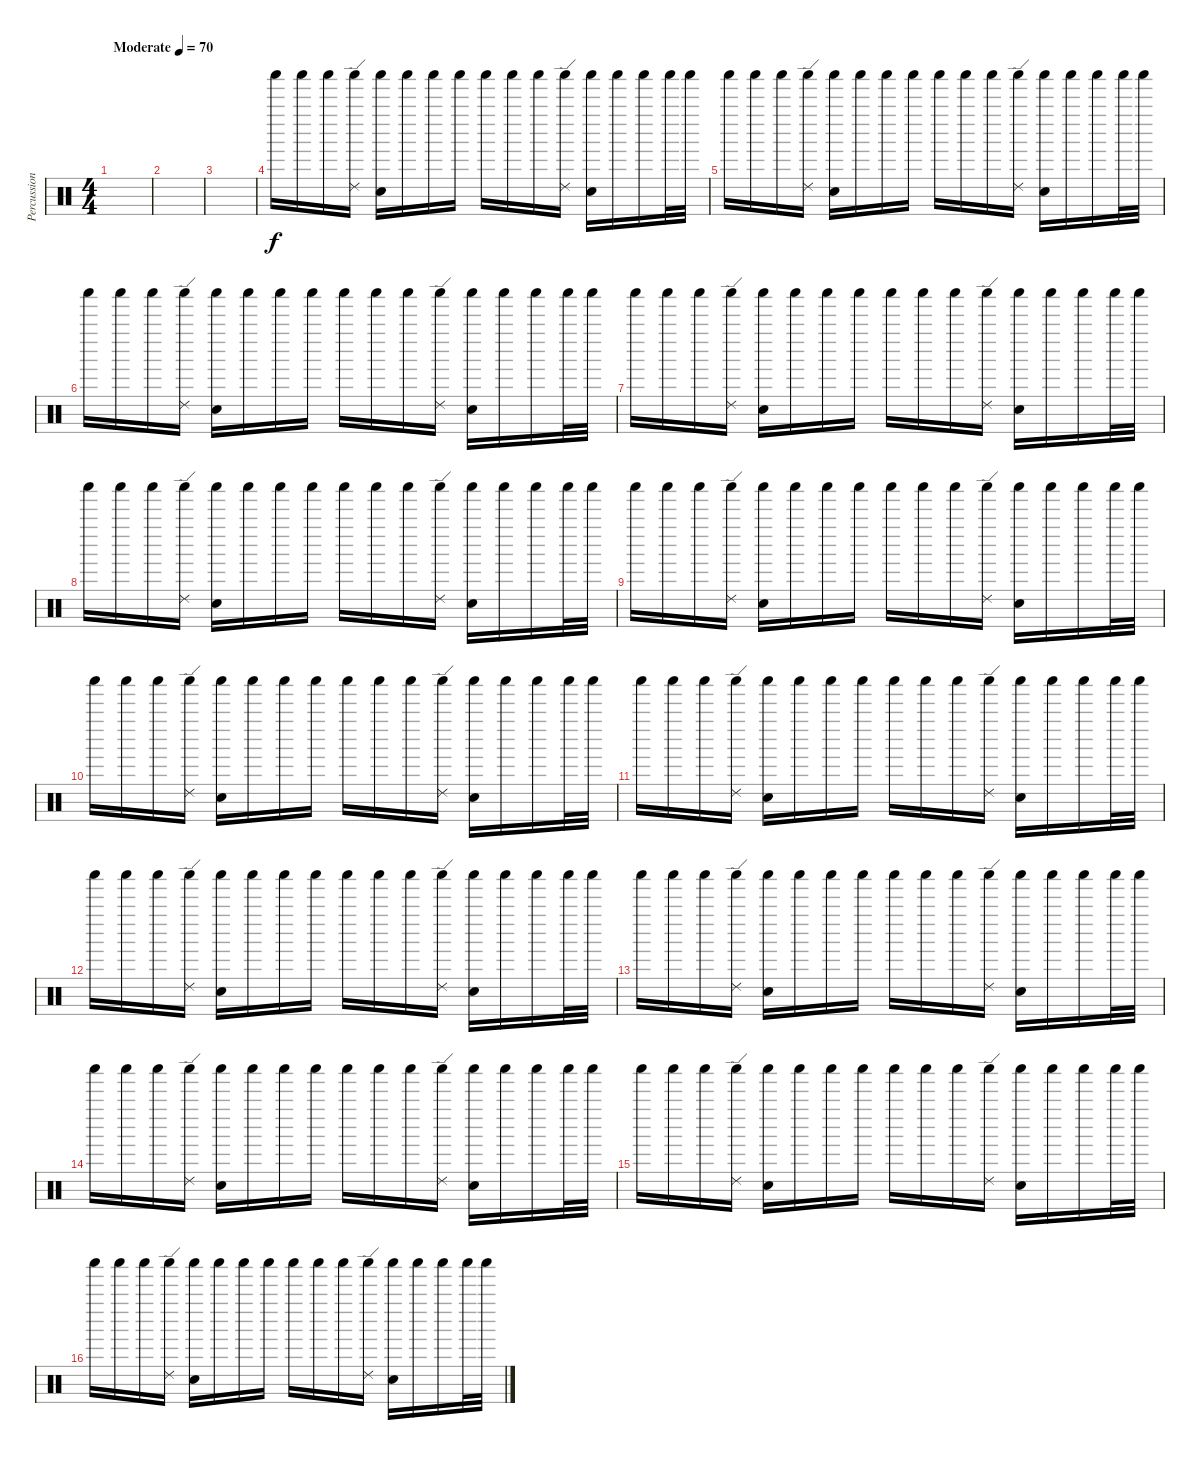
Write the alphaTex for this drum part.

\track ("Percussion" "Percussion") {instrument percussion}
\staff {score}
\articulation defaults
\ts (4 4)
\tempo (70 "Moderate")
\clef neutral
\ks c
|
|
|
"Shaker (hit)".16 "Shaker (hit)".16 "Shaker (hit)".16 ("Shaker (hit)" "Ride (edge) 2").16 ("Shaker (hit)" "Hand Clap (hit)").16 "Shaker (hit)".16 "Shaker (hit)".16 "Shaker (hit)".16 "Shaker (hit)".16 "Shaker (hit)".16 "Shaker (hit)".16 ("Shaker (hit)" "Ride (edge) 2").16 ("Shaker (hit)" "Hand Clap (hit)").16 "Shaker (hit)".16 "Shaker (hit)".16 "Shaker (hit)".32 "Shaker (hit)".32 |
"Shaker (hit)".16 "Shaker (hit)".16 "Shaker (hit)".16 ("Shaker (hit)" "Ride (edge) 2").16 ("Shaker (hit)" "Hand Clap (hit)").16 "Shaker (hit)".16 "Shaker (hit)".16 "Shaker (hit)".16 "Shaker (hit)".16 "Shaker (hit)".16 "Shaker (hit)".16 ("Shaker (hit)" "Ride (edge) 2").16 ("Shaker (hit)" "Hand Clap (hit)").16 "Shaker (hit)".16 "Shaker (hit)".16 "Shaker (hit)".32 "Shaker (hit)".32 |
"Shaker (hit)".16 "Shaker (hit)".16 "Shaker (hit)".16 ("Shaker (hit)" "Ride (edge) 2").16 ("Shaker (hit)" "Hand Clap (hit)").16 "Shaker (hit)".16 "Shaker (hit)".16 "Shaker (hit)".16 "Shaker (hit)".16 "Shaker (hit)".16 "Shaker (hit)".16 ("Shaker (hit)" "Ride (edge) 2").16 ("Shaker (hit)" "Hand Clap (hit)").16 "Shaker (hit)".16 "Shaker (hit)".16 "Shaker (hit)".32 "Shaker (hit)".32 |
"Shaker (hit)".16 "Shaker (hit)".16 "Shaker (hit)".16 ("Shaker (hit)" "Ride (edge) 2").16 ("Shaker (hit)" "Hand Clap (hit)").16 "Shaker (hit)".16 "Shaker (hit)".16 "Shaker (hit)".16 "Shaker (hit)".16 "Shaker (hit)".16 "Shaker (hit)".16 ("Shaker (hit)" "Ride (edge) 2").16 ("Shaker (hit)" "Hand Clap (hit)").16 "Shaker (hit)".16 "Shaker (hit)".16 "Shaker (hit)".32 "Shaker (hit)".32 |
"Shaker (hit)".16 "Shaker (hit)".16 "Shaker (hit)".16 ("Shaker (hit)" "Ride (edge) 2").16 ("Shaker (hit)" "Hand Clap (hit)").16 "Shaker (hit)".16 "Shaker (hit)".16 "Shaker (hit)".16 "Shaker (hit)".16 "Shaker (hit)".16 "Shaker (hit)".16 ("Shaker (hit)" "Ride (edge) 2").16 ("Shaker (hit)" "Hand Clap (hit)").16 "Shaker (hit)".16 "Shaker (hit)".16 "Shaker (hit)".32 "Shaker (hit)".32 |
"Shaker (hit)".16 "Shaker (hit)".16 "Shaker (hit)".16 ("Shaker (hit)" "Ride (edge) 2").16 ("Shaker (hit)" "Hand Clap (hit)").16 "Shaker (hit)".16 "Shaker (hit)".16 "Shaker (hit)".16 "Shaker (hit)".16 "Shaker (hit)".16 "Shaker (hit)".16 ("Shaker (hit)" "Ride (edge) 2").16 ("Shaker (hit)" "Hand Clap (hit)").16 "Shaker (hit)".16 "Shaker (hit)".16 "Shaker (hit)".32 "Shaker (hit)".32 |
"Shaker (hit)".16 "Shaker (hit)".16 "Shaker (hit)".16 ("Shaker (hit)" "Ride (edge) 2").16 ("Shaker (hit)" "Hand Clap (hit)").16 "Shaker (hit)".16 "Shaker (hit)".16 "Shaker (hit)".16 "Shaker (hit)".16 "Shaker (hit)".16 "Shaker (hit)".16 ("Shaker (hit)" "Ride (edge) 2").16 ("Shaker (hit)" "Hand Clap (hit)").16 "Shaker (hit)".16 "Shaker (hit)".16 "Shaker (hit)".32 "Shaker (hit)".32 |
"Shaker (hit)".16 "Shaker (hit)".16 "Shaker (hit)".16 ("Shaker (hit)" "Ride (edge) 2").16 ("Shaker (hit)" "Hand Clap (hit)").16 "Shaker (hit)".16 "Shaker (hit)".16 "Shaker (hit)".16 "Shaker (hit)".16 "Shaker (hit)".16 "Shaker (hit)".16 ("Shaker (hit)" "Ride (edge) 2").16 ("Shaker (hit)" "Hand Clap (hit)").16 "Shaker (hit)".16 "Shaker (hit)".16 "Shaker (hit)".32 "Shaker (hit)".32 |
"Shaker (hit)".16 "Shaker (hit)".16 "Shaker (hit)".16 ("Shaker (hit)" "Ride (edge) 2").16 ("Shaker (hit)" "Hand Clap (hit)").16 "Shaker (hit)".16 "Shaker (hit)".16 "Shaker (hit)".16 "Shaker (hit)".16 "Shaker (hit)".16 "Shaker (hit)".16 ("Shaker (hit)" "Ride (edge) 2").16 ("Shaker (hit)" "Hand Clap (hit)").16 "Shaker (hit)".16 "Shaker (hit)".16 "Shaker (hit)".32 "Shaker (hit)".32 |
"Shaker (hit)".16 "Shaker (hit)".16 "Shaker (hit)".16 ("Shaker (hit)" "Ride (edge) 2").16 ("Shaker (hit)" "Hand Clap (hit)").16 "Shaker (hit)".16 "Shaker (hit)".16 "Shaker (hit)".16 "Shaker (hit)".16 "Shaker (hit)".16 "Shaker (hit)".16 ("Shaker (hit)" "Ride (edge) 2").16 ("Shaker (hit)" "Hand Clap (hit)").16 "Shaker (hit)".16 "Shaker (hit)".16 "Shaker (hit)".32 "Shaker (hit)".32 |
"Shaker (hit)".16 "Shaker (hit)".16 "Shaker (hit)".16 ("Shaker (hit)" "Ride (edge) 2").16 ("Shaker (hit)" "Hand Clap (hit)").16 "Shaker (hit)".16 "Shaker (hit)".16 "Shaker (hit)".16 "Shaker (hit)".16 "Shaker (hit)".16 "Shaker (hit)".16 ("Shaker (hit)" "Ride (edge) 2").16 ("Shaker (hit)" "Hand Clap (hit)").16 "Shaker (hit)".16 "Shaker (hit)".16 "Shaker (hit)".32 "Shaker (hit)".32 |
"Shaker (hit)".16 "Shaker (hit)".16 "Shaker (hit)".16 ("Shaker (hit)" "Ride (edge) 2").16 ("Shaker (hit)" "Hand Clap (hit)").16 "Shaker (hit)".16 "Shaker (hit)".16 "Shaker (hit)".16 "Shaker (hit)".16 "Shaker (hit)".16 "Shaker (hit)".16 ("Shaker (hit)" "Ride (edge) 2").16 ("Shaker (hit)" "Hand Clap (hit)").16 "Shaker (hit)".16 "Shaker (hit)".16 "Shaker (hit)".32 "Shaker (hit)".32 |
"Shaker (hit)".16 "Shaker (hit)".16 "Shaker (hit)".16 ("Shaker (hit)" "Ride (edge) 2").16 ("Shaker (hit)" "Hand Clap (hit)").16 "Shaker (hit)".16 "Shaker (hit)".16 "Shaker (hit)".16 "Shaker (hit)".16 "Shaker (hit)".16 "Shaker (hit)".16 ("Shaker (hit)" "Ride (edge) 2").16 ("Shaker (hit)" "Hand Clap (hit)").16 "Shaker (hit)".16 "Shaker (hit)".16 "Shaker (hit)".32 "Shaker (hit)".32
